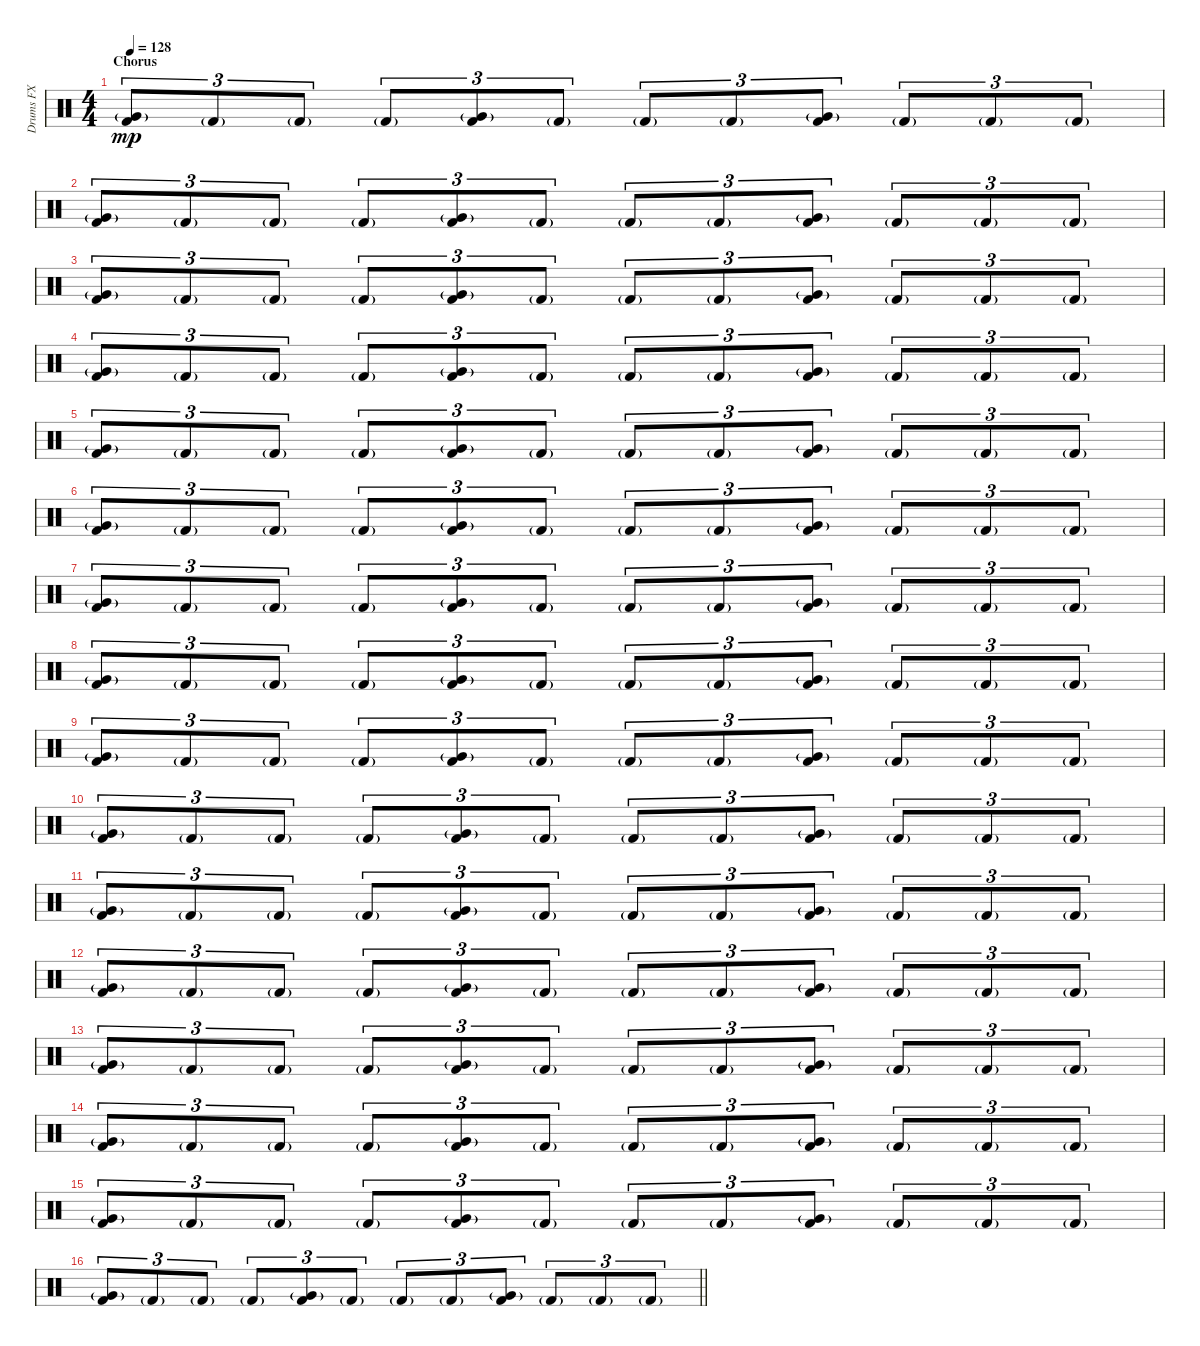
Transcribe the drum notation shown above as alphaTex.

\track ("Drums FX" "Drums FX") {instrument percussion}
\staff {score}
\articulation defaults
\ts (4 4)
\section ("" "Chorus")
\tempo 128
\clef neutral
\ks c
("Very Low Tom (hit)"{g} "Kick (hit) 2").8{tu (3 2) dy mp} "Kick (hit) 2"{g}.8{tu (3 2)} "Kick (hit) 2"{g}.8{tu (3 2)} "Kick (hit) 2"{g}.8{tu (3 2)} ("Very Low Tom (hit)"{g} "Kick (hit) 2").8{tu (3 2)} "Kick (hit) 2"{g}.8{tu (3 2)} "Kick (hit) 2"{g}.8{tu (3 2)} "Kick (hit) 2"{g}.8{tu (3 2)} ("Very Low Tom (hit)"{g} "Kick (hit) 2").8{tu (3 2)} "Kick (hit) 2"{g}.8{tu (3 2)} "Kick (hit) 2"{g}.8{tu (3 2)} "Kick (hit) 2"{g}.8{tu (3 2)} |
("Very Low Tom (hit)"{g} "Kick (hit) 2").8{tu (3 2)} "Kick (hit) 2"{g}.8{tu (3 2)} "Kick (hit) 2"{g}.8{tu (3 2)} "Kick (hit) 2"{g}.8{tu (3 2)} ("Very Low Tom (hit)"{g} "Kick (hit) 2").8{tu (3 2)} "Kick (hit) 2"{g}.8{tu (3 2)} "Kick (hit) 2"{g}.8{tu (3 2)} "Kick (hit) 2"{g}.8{tu (3 2)} ("Very Low Tom (hit)"{g} "Kick (hit) 2").8{tu (3 2)} "Kick (hit) 2"{g}.8{tu (3 2)} "Kick (hit) 2"{g}.8{tu (3 2)} "Kick (hit) 2"{g}.8{tu (3 2)} |
("Very Low Tom (hit)"{g} "Kick (hit) 2").8{tu (3 2)} "Kick (hit) 2"{g}.8{tu (3 2)} "Kick (hit) 2"{g}.8{tu (3 2)} "Kick (hit) 2"{g}.8{tu (3 2)} ("Very Low Tom (hit)"{g} "Kick (hit) 2").8{tu (3 2)} "Kick (hit) 2"{g}.8{tu (3 2)} "Kick (hit) 2"{g}.8{tu (3 2)} "Kick (hit) 2"{g}.8{tu (3 2)} ("Very Low Tom (hit)"{g} "Kick (hit) 2").8{tu (3 2)} "Kick (hit) 2"{g}.8{tu (3 2)} "Kick (hit) 2"{g}.8{tu (3 2)} "Kick (hit) 2"{g}.8{tu (3 2)} |
("Very Low Tom (hit)"{g} "Kick (hit) 2").8{tu (3 2)} "Kick (hit) 2"{g}.8{tu (3 2)} "Kick (hit) 2"{g}.8{tu (3 2)} "Kick (hit) 2"{g}.8{tu (3 2)} ("Very Low Tom (hit)"{g} "Kick (hit) 2").8{tu (3 2)} "Kick (hit) 2"{g}.8{tu (3 2)} "Kick (hit) 2"{g}.8{tu (3 2)} "Kick (hit) 2"{g}.8{tu (3 2)} ("Very Low Tom (hit)"{g} "Kick (hit) 2").8{tu (3 2)} "Kick (hit) 2"{g}.8{tu (3 2)} "Kick (hit) 2"{g}.8{tu (3 2)} "Kick (hit) 2"{g}.8{tu (3 2)} |
("Very Low Tom (hit)"{g} "Kick (hit) 2").8{tu (3 2)} "Kick (hit) 2"{g}.8{tu (3 2)} "Kick (hit) 2"{g}.8{tu (3 2)} "Kick (hit) 2"{g}.8{tu (3 2)} ("Very Low Tom (hit)"{g} "Kick (hit) 2").8{tu (3 2)} "Kick (hit) 2"{g}.8{tu (3 2)} "Kick (hit) 2"{g}.8{tu (3 2)} "Kick (hit) 2"{g}.8{tu (3 2)} ("Very Low Tom (hit)"{g} "Kick (hit) 2").8{tu (3 2)} "Kick (hit) 2"{g}.8{tu (3 2)} "Kick (hit) 2"{g}.8{tu (3 2)} "Kick (hit) 2"{g}.8{tu (3 2)} |
("Very Low Tom (hit)"{g} "Kick (hit) 2").8{tu (3 2)} "Kick (hit) 2"{g}.8{tu (3 2)} "Kick (hit) 2"{g}.8{tu (3 2)} "Kick (hit) 2"{g}.8{tu (3 2)} ("Very Low Tom (hit)"{g} "Kick (hit) 2").8{tu (3 2)} "Kick (hit) 2"{g}.8{tu (3 2)} "Kick (hit) 2"{g}.8{tu (3 2)} "Kick (hit) 2"{g}.8{tu (3 2)} ("Very Low Tom (hit)"{g} "Kick (hit) 2").8{tu (3 2)} "Kick (hit) 2"{g}.8{tu (3 2)} "Kick (hit) 2"{g}.8{tu (3 2)} "Kick (hit) 2"{g}.8{tu (3 2)} |
("Very Low Tom (hit)"{g} "Kick (hit) 2").8{tu (3 2)} "Kick (hit) 2"{g}.8{tu (3 2)} "Kick (hit) 2"{g}.8{tu (3 2)} "Kick (hit) 2"{g}.8{tu (3 2)} ("Very Low Tom (hit)"{g} "Kick (hit) 2").8{tu (3 2)} "Kick (hit) 2"{g}.8{tu (3 2)} "Kick (hit) 2"{g}.8{tu (3 2)} "Kick (hit) 2"{g}.8{tu (3 2)} ("Very Low Tom (hit)"{g} "Kick (hit) 2").8{tu (3 2)} "Kick (hit) 2"{g}.8{tu (3 2)} "Kick (hit) 2"{g}.8{tu (3 2)} "Kick (hit) 2"{g}.8{tu (3 2)} |
("Very Low Tom (hit)"{g} "Kick (hit) 2").8{tu (3 2)} "Kick (hit) 2"{g}.8{tu (3 2)} "Kick (hit) 2"{g}.8{tu (3 2)} "Kick (hit) 2"{g}.8{tu (3 2)} ("Very Low Tom (hit)"{g} "Kick (hit) 2").8{tu (3 2)} "Kick (hit) 2"{g}.8{tu (3 2)} "Kick (hit) 2"{g}.8{tu (3 2)} "Kick (hit) 2"{g}.8{tu (3 2)} ("Very Low Tom (hit)"{g} "Kick (hit) 2").8{tu (3 2)} "Kick (hit) 2"{g}.8{tu (3 2)} "Kick (hit) 2"{g}.8{tu (3 2)} "Kick (hit) 2"{g}.8{tu (3 2)} |
("Very Low Tom (hit)"{g} "Kick (hit) 2").8{tu (3 2)} "Kick (hit) 2"{g}.8{tu (3 2)} "Kick (hit) 2"{g}.8{tu (3 2)} "Kick (hit) 2"{g}.8{tu (3 2)} ("Very Low Tom (hit)"{g} "Kick (hit) 2").8{tu (3 2)} "Kick (hit) 2"{g}.8{tu (3 2)} "Kick (hit) 2"{g}.8{tu (3 2)} "Kick (hit) 2"{g}.8{tu (3 2)} ("Very Low Tom (hit)"{g} "Kick (hit) 2").8{tu (3 2)} "Kick (hit) 2"{g}.8{tu (3 2)} "Kick (hit) 2"{g}.8{tu (3 2)} "Kick (hit) 2"{g}.8{tu (3 2)} |
("Very Low Tom (hit)"{g} "Kick (hit) 2").8{tu (3 2)} "Kick (hit) 2"{g}.8{tu (3 2)} "Kick (hit) 2"{g}.8{tu (3 2)} "Kick (hit) 2"{g}.8{tu (3 2)} ("Very Low Tom (hit)"{g} "Kick (hit) 2").8{tu (3 2)} "Kick (hit) 2"{g}.8{tu (3 2)} "Kick (hit) 2"{g}.8{tu (3 2)} "Kick (hit) 2"{g}.8{tu (3 2)} ("Very Low Tom (hit)"{g} "Kick (hit) 2").8{tu (3 2)} "Kick (hit) 2"{g}.8{tu (3 2)} "Kick (hit) 2"{g}.8{tu (3 2)} "Kick (hit) 2"{g}.8{tu (3 2)} |
("Very Low Tom (hit)"{g} "Kick (hit) 2").8{tu (3 2)} "Kick (hit) 2"{g}.8{tu (3 2)} "Kick (hit) 2"{g}.8{tu (3 2)} "Kick (hit) 2"{g}.8{tu (3 2)} ("Very Low Tom (hit)"{g} "Kick (hit) 2").8{tu (3 2)} "Kick (hit) 2"{g}.8{tu (3 2)} "Kick (hit) 2"{g}.8{tu (3 2)} "Kick (hit) 2"{g}.8{tu (3 2)} ("Very Low Tom (hit)"{g} "Kick (hit) 2").8{tu (3 2)} "Kick (hit) 2"{g}.8{tu (3 2)} "Kick (hit) 2"{g}.8{tu (3 2)} "Kick (hit) 2"{g}.8{tu (3 2)} |
("Very Low Tom (hit)"{g} "Kick (hit) 2").8{tu (3 2)} "Kick (hit) 2"{g}.8{tu (3 2)} "Kick (hit) 2"{g}.8{tu (3 2)} "Kick (hit) 2"{g}.8{tu (3 2)} ("Very Low Tom (hit)"{g} "Kick (hit) 2").8{tu (3 2)} "Kick (hit) 2"{g}.8{tu (3 2)} "Kick (hit) 2"{g}.8{tu (3 2)} "Kick (hit) 2"{g}.8{tu (3 2)} ("Very Low Tom (hit)"{g} "Kick (hit) 2").8{tu (3 2)} "Kick (hit) 2"{g}.8{tu (3 2)} "Kick (hit) 2"{g}.8{tu (3 2)} "Kick (hit) 2"{g}.8{tu (3 2)} |
("Very Low Tom (hit)"{g} "Kick (hit) 2").8{tu (3 2)} "Kick (hit) 2"{g}.8{tu (3 2)} "Kick (hit) 2"{g}.8{tu (3 2)} "Kick (hit) 2"{g}.8{tu (3 2)} ("Very Low Tom (hit)"{g} "Kick (hit) 2").8{tu (3 2)} "Kick (hit) 2"{g}.8{tu (3 2)} "Kick (hit) 2"{g}.8{tu (3 2)} "Kick (hit) 2"{g}.8{tu (3 2)} ("Very Low Tom (hit)"{g} "Kick (hit) 2").8{tu (3 2)} "Kick (hit) 2"{g}.8{tu (3 2)} "Kick (hit) 2"{g}.8{tu (3 2)} "Kick (hit) 2"{g}.8{tu (3 2)} |
("Very Low Tom (hit)"{g} "Kick (hit) 2").8{tu (3 2)} "Kick (hit) 2"{g}.8{tu (3 2)} "Kick (hit) 2"{g}.8{tu (3 2)} "Kick (hit) 2"{g}.8{tu (3 2)} ("Very Low Tom (hit)"{g} "Kick (hit) 2").8{tu (3 2)} "Kick (hit) 2"{g}.8{tu (3 2)} "Kick (hit) 2"{g}.8{tu (3 2)} "Kick (hit) 2"{g}.8{tu (3 2)} ("Very Low Tom (hit)"{g} "Kick (hit) 2").8{tu (3 2)} "Kick (hit) 2"{g}.8{tu (3 2)} "Kick (hit) 2"{g}.8{tu (3 2)} "Kick (hit) 2"{g}.8{tu (3 2)} |
("Very Low Tom (hit)"{g} "Kick (hit) 2").8{tu (3 2)} "Kick (hit) 2"{g}.8{tu (3 2)} "Kick (hit) 2"{g}.8{tu (3 2)} "Kick (hit) 2"{g}.8{tu (3 2)} ("Very Low Tom (hit)"{g} "Kick (hit) 2").8{tu (3 2)} "Kick (hit) 2"{g}.8{tu (3 2)} "Kick (hit) 2"{g}.8{tu (3 2)} "Kick (hit) 2"{g}.8{tu (3 2)} ("Very Low Tom (hit)"{g} "Kick (hit) 2").8{tu (3 2)} "Kick (hit) 2"{g}.8{tu (3 2)} "Kick (hit) 2"{g}.8{tu (3 2)} "Kick (hit) 2"{g}.8{tu (3 2)} |
\barLineRight lightlight
("Very Low Tom (hit)"{g} "Kick (hit) 2").8{tu (3 2)} "Kick (hit) 2"{g}.8{tu (3 2)} "Kick (hit) 2"{g}.8{tu (3 2)} "Kick (hit) 2"{g}.8{tu (3 2)} ("Very Low Tom (hit)"{g} "Kick (hit) 2").8{tu (3 2)} "Kick (hit) 2"{g}.8{tu (3 2)} "Kick (hit) 2"{g}.8{tu (3 2)} "Kick (hit) 2"{g}.8{tu (3 2)} ("Very Low Tom (hit)"{g} "Kick (hit) 2").8{tu (3 2)} "Kick (hit) 2"{g}.8{tu (3 2)} "Kick (hit) 2"{g}.8{tu (3 2)} "Kick (hit) 2"{g}.8{tu (3 2)}
